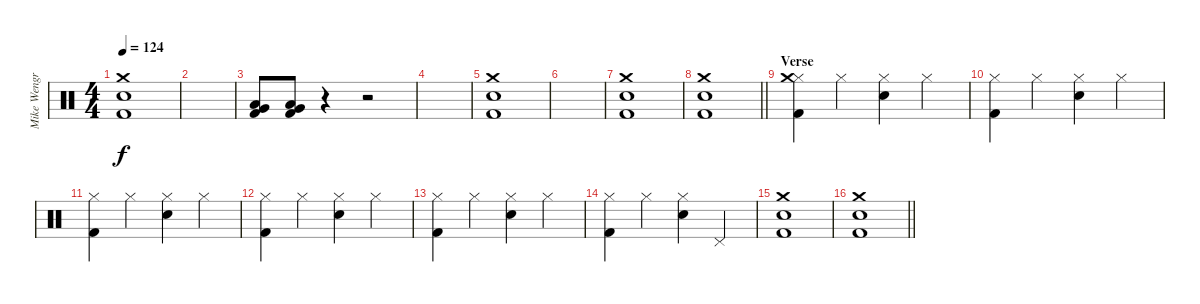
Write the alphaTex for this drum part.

\track ("Mike Wengren" "Mike Wengr") {instrument percussion}
\staff {score}
\articulation defaults
\ts (4 4)
\tempo 124
\clef neutral
\ks c
("Kick (hit) 2" "Electric Snare (hit)" "Crash medium (hit)").1{dy f} |
|
("Kick (hit) 2" "Very Low Tom (hit)" "Low Tom (hit)").8 ("Kick (hit) 2" "Very Low Tom (hit)" "Low Tom (hit)").8 r.4 r.2 |
|
("Kick (hit) 2" "Electric Snare (hit)" "Crash medium (hit)").1 |
|
("Kick (hit) 2" "Electric Snare (hit)" "Crash medium (hit)").1 |
\barLineRight lightlight
("Kick (hit) 2" "Electric Snare (hit)" "Crash medium (hit)").1 |
\section ("" "Verse")
("Kick (hit) 2" "Hi-Hat (closed)" "Crash medium (hit)").4 "Hi-Hat (closed)".4 ("Electric Snare (hit)" "Hi-Hat (closed)").4 "Hi-Hat (closed)".4 |
("Kick (hit) 2" "Hi-Hat (closed)").4 "Hi-Hat (closed)".4 ("Electric Snare (hit)" "Hi-Hat (closed)").4 "Hi-Hat (closed)".4 |
("Kick (hit) 2" "Hi-Hat (closed)").4 "Hi-Hat (closed)".4 ("Electric Snare (hit)" "Hi-Hat (closed)").4 "Hi-Hat (closed)".4 |
("Kick (hit) 2" "Hi-Hat (closed)").4 "Hi-Hat (closed)".4 ("Electric Snare (hit)" "Hi-Hat (closed)").4 "Hi-Hat (closed)".4 |
("Kick (hit) 2" "Hi-Hat (closed)").4 "Hi-Hat (closed)".4 ("Electric Snare (hit)" "Hi-Hat (closed)").4 "Hi-Hat (closed)".4 |
("Kick (hit) 2" "Hi-Hat (closed)").4 "Hi-Hat (closed)".4 ("Electric Snare (hit)" "Hi-Hat (closed)").4 "Pedal Hi-Hat (hit)".4 |
("Kick (hit) 2" "Electric Snare (hit)" "Crash medium (hit)").1 |
\barLineRight lightlight
("Kick (hit) 2" "Electric Snare (hit)" "Crash medium (hit)").1
